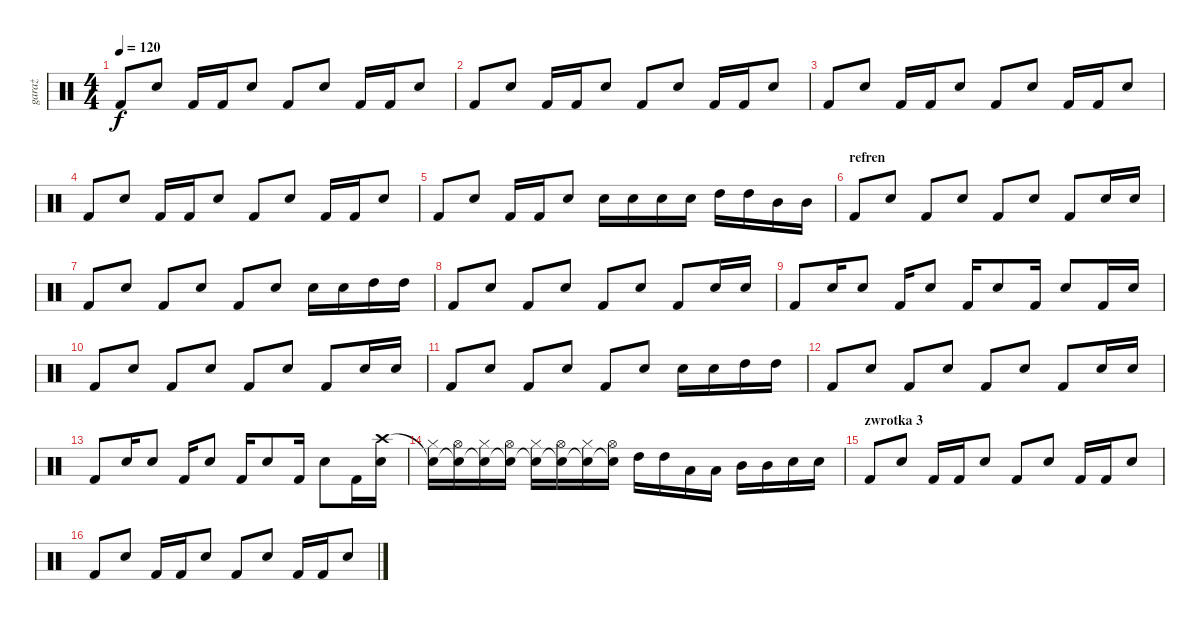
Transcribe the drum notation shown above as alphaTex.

\track ("garaż" "garaż") {instrument percussion}
\staff {score}
\articulation defaults
\ts (4 4)
\tempo 120
\clef neutral
\ks c "Kick (hit) 2".8{dy f} "Snare (hit) 2".8 "Kick (hit) 2".16 "Kick (hit) 2".16 "Snare (hit) 2".8 "Kick (hit) 2".8 "Snare (hit) 2".8 "Kick (hit) 2".16 "Kick (hit) 2".16 "Snare (hit) 2".8
|
"Kick (hit) 2".8 "Snare (hit) 2".8 "Kick (hit) 2".16 "Kick (hit) 2".16 "Snare (hit) 2".8 "Kick (hit) 2".8 "Snare (hit) 2".8 "Kick (hit) 2".16 "Kick (hit) 2".16 "Snare (hit) 2".8 |
"Kick (hit) 2".8 "Snare (hit) 2".8 "Kick (hit) 2".16 "Kick (hit) 2".16 "Snare (hit) 2".8 "Kick (hit) 2".8 "Snare (hit) 2".8 "Kick (hit) 2".16 "Kick (hit) 2".16 "Snare (hit) 2".8 |
"Kick (hit) 2".8 "Snare (hit) 2".8 "Kick (hit) 2".16 "Kick (hit) 2".16 "Snare (hit) 2".8 "Kick (hit) 2".8 "Snare (hit) 2".8 "Kick (hit) 2".16 "Kick (hit) 2".16 "Snare (hit) 2".8 |
"Kick (hit) 2".8 "Snare (hit) 2".8 "Kick (hit) 2".16 "Kick (hit) 2".16 "Snare (hit) 2".8 "Snare (hit) 2".16 "Snare (hit) 2".16 "Snare (hit) 2".16 "Snare (hit) 2".16 "High Tom (hit)".16 "High Tom (hit)".16 "Mid Tom (hit)".16 "Mid Tom (hit)".16 |
\section ("" "refren")
"Kick (hit) 2".8 "Snare (hit) 2".8 "Kick (hit) 2".8 "Snare (hit) 2".8 "Kick (hit) 2".8 "Snare (hit) 2".8 "Kick (hit) 2".8 "Snare (hit) 2".16 "Snare (hit) 2".16 |
"Kick (hit) 2".8 "Snare (hit) 2".8 "Kick (hit) 2".8 "Snare (hit) 2".8 "Kick (hit) 2".8 "Snare (hit) 2".8 "Snare (hit) 2".16 "Snare (hit) 2".16 "High Tom (hit)".16 "High Tom (hit)".16 |
"Kick (hit) 2".8 "Snare (hit) 2".8 "Kick (hit) 2".8 "Snare (hit) 2".8 "Kick (hit) 2".8 "Snare (hit) 2".8 "Kick (hit) 2".8 "Snare (hit) 2".16 "Snare (hit) 2".16 |
"Kick (hit) 2".8 "Snare (hit) 2".16 "Snare (hit) 2".8 "Kick (hit) 2".16 "Snare (hit) 2".8 "Kick (hit) 2".16 "Snare (hit) 2".8 "Kick (hit) 2".16 "Snare (hit) 2".8 "Kick (hit) 2".16 "Snare (hit) 2".16 |
"Kick (hit) 2".8 "Snare (hit) 2".8 "Kick (hit) 2".8 "Snare (hit) 2".8 "Kick (hit) 2".8 "Snare (hit) 2".8 "Kick (hit) 2".8 "Snare (hit) 2".16 "Snare (hit) 2".16 |
"Kick (hit) 2".8 "Snare (hit) 2".8 "Kick (hit) 2".8 "Snare (hit) 2".8 "Kick (hit) 2".8 "Snare (hit) 2".8 "Snare (hit) 2".16 "Snare (hit) 2".16 "High Tom (hit)".16 "High Tom (hit)".16 |
"Kick (hit) 2".8 "Snare (hit) 2".8 "Kick (hit) 2".8 "Snare (hit) 2".8 "Kick (hit) 2".8 "Snare (hit) 2".8 "Kick (hit) 2".8 "Snare (hit) 2".16 "Snare (hit) 2".16 |
"Kick (hit) 2".8 "Snare (hit) 2".16 "Snare (hit) 2".8 "Kick (hit) 2".16 "Snare (hit) 2".8 "Kick (hit) 2".16 "Snare (hit) 2".8 "Kick (hit) 2".16 "Snare (hit) 2".8 "Kick (hit) 2".16 ("Crash high (hit)" "Snare (hit) 2").16 |
("Snare (hit)"{t} "Hi-Hat (closed)").16 ("Snare (hit)"{t} "Hi-Hat (open)").16 ("Snare (hit)"{t} "Hi-Hat (closed)").16 ("Snare (hit)"{t} "Hi-Hat (open)").16 ("Snare (hit)"{t} "Hi-Hat (closed)").16 ("Snare (hit)"{t} "Hi-Hat (open)").16 ("Snare (hit)"{t} "Hi-Hat (closed)").16 ("Snare (hit)"{t} "Hi-Hat (open)").16 "High Tom (hit)".16 "High Tom (hit)".16 "Low Tom (hit)".16 "Low Tom (hit)".16 "Mid Tom (hit)".16 "Mid Tom (hit)".16 "Snare (hit) 2".16 "Snare (hit) 2".16 |
\section ("" "zwrotka 3")
"Kick (hit) 2".8 "Snare (hit) 2".8 "Kick (hit) 2".16 "Kick (hit) 2".16 "Snare (hit) 2".8 "Kick (hit) 2".8 "Snare (hit) 2".8 "Kick (hit) 2".16 "Kick (hit) 2".16 "Snare (hit) 2".8 |
"Kick (hit) 2".8 "Snare (hit) 2".8 "Kick (hit) 2".16 "Kick (hit) 2".16 "Snare (hit) 2".8 "Kick (hit) 2".8 "Snare (hit) 2".8 "Kick (hit) 2".16 "Kick (hit) 2".16 "Snare (hit) 2".8
